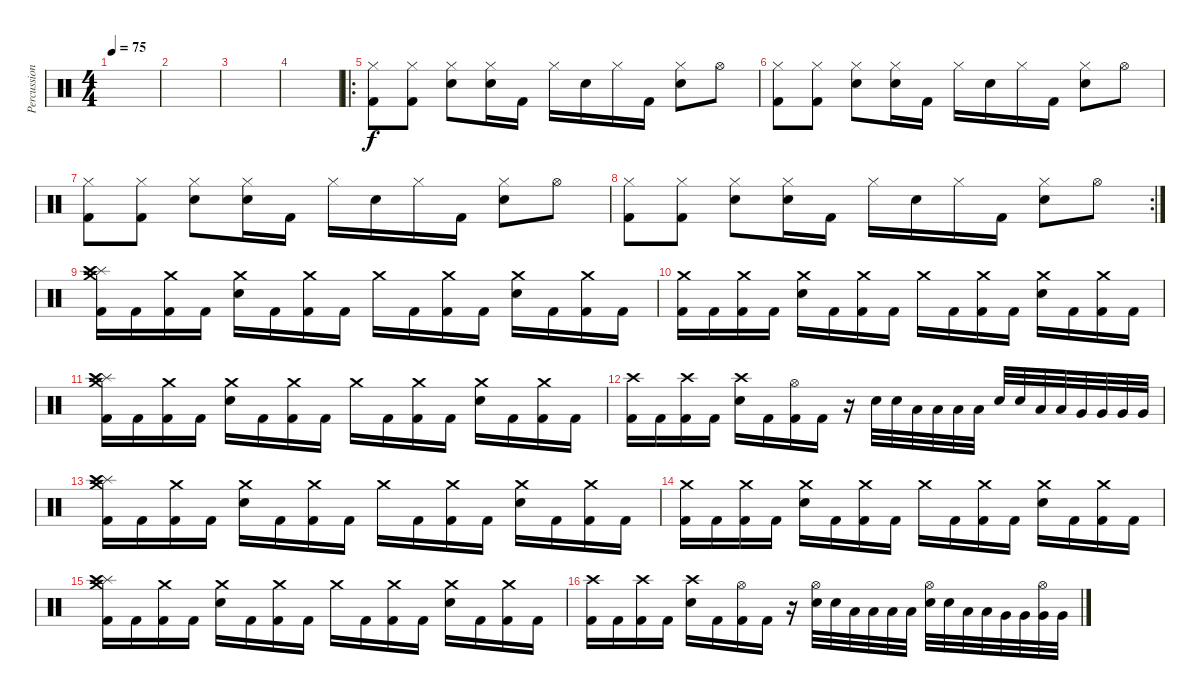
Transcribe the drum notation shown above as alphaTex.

\track ("Percussion" "Percussion") {instrument percussion}
\staff {score}
\articulation defaults
\ts (4 4)
\tempo 75
\clef neutral
\ks c
|
|
|
|
\ro
("Hi-Hat (closed)" "Kick (hit) 2").8{balance 0} ("Hi-Hat (closed)" "Kick (hit) 2").8 ("Hi-Hat (closed)" "Electric Snare (hit)").8 ("Hi-Hat (closed)" "Electric Snare (hit)").16 "Kick (hit) 2".16 "Hi-Hat (closed)".16 "Electric Snare (hit)".16 "Hi-Hat (closed)".16 "Kick (hit) 2".16 ("Hi-Hat (closed)" "Electric Snare (hit)").8 "Hi-Hat (open)".8 |
("Hi-Hat (closed)" "Kick (hit) 2").8 ("Hi-Hat (closed)" "Kick (hit) 2").8 ("Hi-Hat (closed)" "Electric Snare (hit)").8 ("Hi-Hat (closed)" "Electric Snare (hit)").16 "Kick (hit) 2".16 "Hi-Hat (closed)".16 "Electric Snare (hit)".16 "Hi-Hat (closed)".16 "Kick (hit) 2".16 ("Hi-Hat (closed)" "Electric Snare (hit)").8 "Hi-Hat (open)".8 |
("Hi-Hat (closed)" "Kick (hit) 2").8 ("Hi-Hat (closed)" "Kick (hit) 2").8 ("Hi-Hat (closed)" "Electric Snare (hit)").8 ("Hi-Hat (closed)" "Electric Snare (hit)").16 "Kick (hit) 2".16 "Hi-Hat (closed)".16 "Electric Snare (hit)".16 "Hi-Hat (closed)".16 "Kick (hit) 2".16 ("Hi-Hat (closed)" "Electric Snare (hit)").8 "Hi-Hat (open)".8 |
\rc 2
("Hi-Hat (closed)" "Kick (hit) 2").8 ("Hi-Hat (closed)" "Kick (hit) 2").8 ("Hi-Hat (closed)" "Electric Snare (hit)").8 ("Hi-Hat (closed)" "Electric Snare (hit)").16 "Kick (hit) 2".16 "Hi-Hat (closed)".16 "Electric Snare (hit)".16 "Hi-Hat (closed)".16 "Kick (hit) 2".16 ("Hi-Hat (closed)" "Electric Snare (hit)").8 "Hi-Hat (open)".8 |
("Splash (hit)" "Crash high (hit)" "Crash medium (hit)" "Kick (hit) 2").16 "Kick (hit) 2".16 ("Crash medium (hit)" "Kick (hit) 2").16 "Kick (hit) 2".16 ("Crash medium (hit)" "Snare (hit) 2").16 "Kick (hit) 2".16 ("Crash medium (hit)" "Kick (hit) 2").16 "Kick (hit) 2".16 "Crash medium (hit)".16 "Kick (hit) 2".16 ("Crash medium (hit)" "Kick (hit) 2").16 "Kick (hit) 2".16 ("Crash medium (hit)" "Snare (hit) 2").16 "Kick (hit) 2".16 ("Crash medium (hit)" "Kick (hit) 2").16 "Kick (hit) 2".16 |
("Crash medium (hit)" "Kick (hit) 2").16 "Kick (hit) 2".16 ("Crash medium (hit)" "Kick (hit) 2").16 "Kick (hit) 2".16 ("Crash medium (hit)" "Snare (hit) 2").16 "Kick (hit) 2".16 ("Crash medium (hit)" "Kick (hit) 2").16 "Kick (hit) 2".16 "Crash medium (hit)".16 "Kick (hit) 2".16 ("Crash medium (hit)" "Kick (hit) 2").16 "Kick (hit) 2".16 ("Crash medium (hit)" "Snare (hit) 2").16 "Kick (hit) 2".16 ("Crash medium (hit)" "Kick (hit) 2").16 "Kick (hit) 2".16 |
("Splash (hit)" "Crash high (hit)" "Crash medium (hit)" "Kick (hit) 2").16 "Kick (hit) 2".16 ("Crash medium (hit)" "Kick (hit) 2").16 "Kick (hit) 2".16 ("Crash medium (hit)" "Snare (hit) 2").16 "Kick (hit) 2".16 ("Crash medium (hit)" "Kick (hit) 2").16 "Kick (hit) 2".16 "Crash medium (hit)".16 "Kick (hit) 2".16 ("Crash medium (hit)" "Kick (hit) 2").16 "Kick (hit) 2".16 ("Crash medium (hit)" "Snare (hit) 2").16 "Kick (hit) 2".16 ("Crash medium (hit)" "Kick (hit) 2").16 "Kick (hit) 2".16 |
("Crash high (hit)" "Kick (hit) 2").16 "Kick (hit) 2".16 ("Crash high (hit)" "Kick (hit) 2").16 "Kick (hit) 2".16 ("Crash high (hit)" "Electric Snare (hit)").16 "Kick (hit) 2".16 ("Hi-Hat (open)" "Kick (hit) 2").16 "Kick (hit) 2".16 r.16 "Electric Snare (hit)".32 "Electric Snare (hit)".32 "Low Tom (hit)".32 "Low Tom (hit)".32 "Low Tom (hit)".32 "Low Tom (hit)".32 "Electric Snare (hit)".32 "Electric Snare (hit)".32 "Low Tom (hit)".32 "Low Tom (hit)".32 "Very Low Tom (hit)".32 "Very Low Tom (hit)".32 "Very Low Tom (hit)".32 "Very Low Tom (hit)".32 |
("Splash (hit)" "Crash high (hit)" "Crash medium (hit)" "Kick (hit) 2").16 "Kick (hit) 2".16 ("Crash medium (hit)" "Kick (hit) 2").16 "Kick (hit) 2".16 ("Crash medium (hit)" "Snare (hit) 2").16 "Kick (hit) 2".16 ("Crash medium (hit)" "Kick (hit) 2").16 "Kick (hit) 2".16 "Crash medium (hit)".16 "Kick (hit) 2".16 ("Crash medium (hit)" "Kick (hit) 2").16 "Kick (hit) 2".16 ("Crash medium (hit)" "Snare (hit) 2").16 "Kick (hit) 2".16 ("Crash medium (hit)" "Kick (hit) 2").16 "Kick (hit) 2".16 |
("Crash medium (hit)" "Kick (hit) 2").16 "Kick (hit) 2".16 ("Crash medium (hit)" "Kick (hit) 2").16 "Kick (hit) 2".16 ("Crash medium (hit)" "Snare (hit) 2").16 "Kick (hit) 2".16 ("Crash medium (hit)" "Kick (hit) 2").16 "Kick (hit) 2".16 "Crash medium (hit)".16 "Kick (hit) 2".16 ("Crash medium (hit)" "Kick (hit) 2").16 "Kick (hit) 2".16 ("Crash medium (hit)" "Snare (hit) 2").16 "Kick (hit) 2".16 ("Crash medium (hit)" "Kick (hit) 2").16 "Kick (hit) 2".16 |
("Splash (hit)" "Crash high (hit)" "Crash medium (hit)" "Kick (hit) 2").16 "Kick (hit) 2".16 ("Crash medium (hit)" "Kick (hit) 2").16 "Kick (hit) 2".16 ("Crash medium (hit)" "Snare (hit) 2").16 "Kick (hit) 2".16 ("Crash medium (hit)" "Kick (hit) 2").16 "Kick (hit) 2".16 "Crash medium (hit)".16 "Kick (hit) 2".16 ("Crash medium (hit)" "Kick (hit) 2").16 "Kick (hit) 2".16 ("Crash medium (hit)" "Snare (hit) 2").16 "Kick (hit) 2".16 ("Crash medium (hit)" "Kick (hit) 2").16 "Kick (hit) 2".16 |
("Crash high (hit)" "Kick (hit) 2").16 "Kick (hit) 2".16 ("Crash high (hit)" "Kick (hit) 2").16 "Kick (hit) 2".16 ("Crash high (hit)" "Snare (hit) 2").16 "Kick (hit) 2".16 ("Hi-Hat (open)" "Kick (hit) 2").16 "Kick (hit) 2".16 r.16 ("Hi-Hat (open)" "Electric Snare (hit)").32 "Electric Snare (hit)".32 "Low Tom (hit)".32 "Low Tom (hit)".32 "Low Tom (hit)".32 "Low Tom (hit)".32 ("Hi-Hat (open)" "Electric Snare (hit)").32 "Electric Snare (hit)".32 "Low Tom (hit)".32 "Low Tom (hit)".32 "Very Low Tom (hit)".32 "Very Low Tom (hit)".32 ("Hi-Hat (open)" "Very Low Tom (hit)").32 "Very Low Tom (hit)".32
